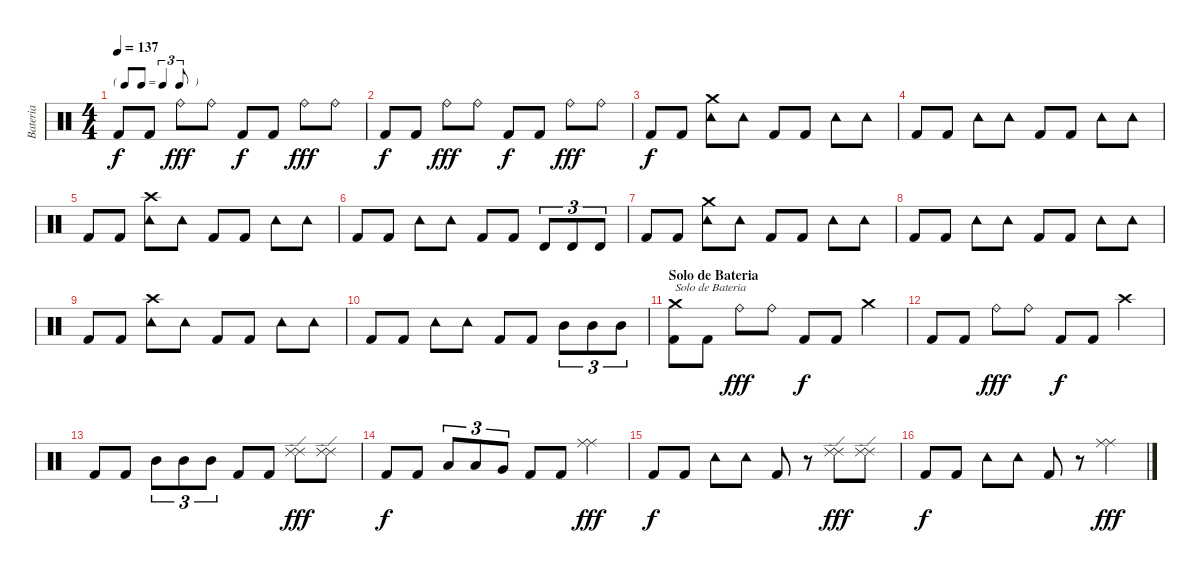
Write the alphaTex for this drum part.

\track ("Bateria" "Bateria") {instrument percussion}
\staff {score}
\articulation defaults
\ts (4 4)
\tf triplet8th
\tempo 137
\clef neutral
\ks c "Kick (hit) 2".8{dy f} "Kick (hit) 2".8 "Ride (bell)".8{dy fff} "Ride (bell)".8 "Kick (hit) 2".8{dy f} "Kick (hit) 2".8 "Ride (bell)".8{dy fff} "Ride (bell)".8
|
"Kick (hit) 2".8{dy f} "Kick (hit) 2".8 "Ride (bell)".8{dy fff} "Ride (bell)".8 "Kick (hit) 2".8{dy f} "Kick (hit) 2".8 "Ride (bell)".8{dy fff} "Ride (bell)".8 |
"Kick (hit) 2".8{dy f} "Kick (hit) 2".8 ("Tambourine (hit)" "Crash medium (hit)").8 "Tambourine (hit)".8 "Kick (hit) 2".8 "Kick (hit) 2".8 "Tambourine (hit)".8 "Tambourine (hit)".8 |
"Kick (hit) 2".8 "Kick (hit) 2".8 "Tambourine (hit)".8 "Tambourine (hit)".8 "Kick (hit) 2".8 "Kick (hit) 2".8 "Tambourine (hit)".8 "Tambourine (hit)".8 |
"Kick (hit) 2".8 "Kick (hit) 2".8 ("Tambourine (hit)" "Crash high (hit)").8 "Tambourine (hit)".8 "Kick (hit) 2".8 "Kick (hit) 2".8 "Tambourine (hit)".8 "Tambourine (hit)".8 |
"Kick (hit) 2".8 "Kick (hit) 2".8 "Tambourine (hit)".8 "Tambourine (hit)".8 "Kick (hit) 2".8 "Kick (hit) 2".8 "Timbale high (hit)".8{tu (3 2)} "Timbale high (hit)".8{tu (3 2)} "Timbale high (hit)".8{tu (3 2)} |
"Kick (hit) 2".8 "Kick (hit) 2".8 ("Tambourine (hit)" "Crash medium (hit)").8 "Tambourine (hit)".8 "Kick (hit) 2".8 "Kick (hit) 2".8 "Tambourine (hit)".8 "Tambourine (hit)".8 |
"Kick (hit) 2".8 "Kick (hit) 2".8 "Tambourine (hit)".8 "Tambourine (hit)".8 "Kick (hit) 2".8 "Kick (hit) 2".8 "Tambourine (hit)".8 "Tambourine (hit)".8 |
"Kick (hit) 2".8 "Kick (hit) 2".8 ("Tambourine (hit)" "Crash high (hit)").8 "Tambourine (hit)".8 "Kick (hit) 2".8 "Kick (hit) 2".8 "Tambourine (hit)".8 "Tambourine (hit)".8 |
"Kick (hit) 2".8 "Kick (hit) 2".8 "Tambourine (hit)".8 "Tambourine (hit)".8 "Kick (hit) 2".8 "Kick (hit) 2".8 "Mid Tom (hit)".8{tu (3 2)} "Mid Tom (hit)".8{tu (3 2)} "Mid Tom (hit)".8{tu (3 2)} |
\section ("" "Solo de Bateria")
("Kick (hit) 2" "Crash medium (hit)").8{txt "Solo de Bateria"} "Kick (hit) 2".8 "Ride (bell)".8{dy fff} "Ride (bell)".8 "Kick (hit) 2".8{dy f} "Kick (hit) 2".8 "Crash medium (hit)".4 |
"Kick (hit) 2".8 "Kick (hit) 2".8 "Ride (bell)".8{dy fff} "Ride (bell)".8 "Kick (hit) 2".8{dy f} "Kick (hit) 2".8 "Crash high (hit)".4 |
"Kick (hit) 2".8 "Kick (hit) 2".8 "Mid Tom (hit)".8{tu (3 2)} "Mid Tom (hit)".8{tu (3 2)} "Mid Tom (hit)".8{tu (3 2)} "Kick (hit) 2".8 "Kick (hit) 2".8 ("Ride (edge) 2" "Ride (edge) 2").8{dy fff} ("Ride (edge) 2" "Ride (edge) 2").8 |
"Kick (hit) 2".8{dy f} "Kick (hit) 2".8 "Low Tom (hit)".8{tu (3 2)} "Low Tom (hit)".8{tu (3 2)} "Very Low Tom (hit)".8{tu (3 2)} "Kick (hit) 2".8 "Kick (hit) 2".8 ("Ride (middle)" "Ride (middle)").4{dy fff} |
"Kick (hit) 2".8{dy f} "Kick (hit) 2".8 "Tambourine (hit)".8 "Tambourine (hit)".8 "Kick (hit) 2".8 r.8 ("Ride (edge) 2" "Ride (edge) 2").8{dy fff} ("Ride (edge) 2" "Ride (edge) 2").8 |
"Kick (hit) 2".8{dy f} "Kick (hit) 2".8 "Tambourine (hit)".8 "Tambourine (hit)".8 "Kick (hit) 2".8 r.8 ("Ride (middle)" "Ride (middle)").4{dy fff}
